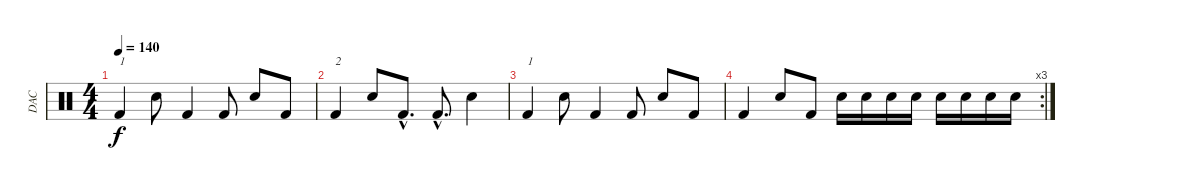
\track ("DAC" "DAC") {instrument percussion}
\staff {score}
\articulation defaults
\ts (4 4)
\tempo 140
\clef neutral
\ks c "Kick (hit) 2".4{txt "1" dy f} "Snare (hit) 2".8 "Kick (hit) 2".4 "Kick (hit) 2".8 "Snare (hit) 2".8 "Kick (hit) 2".8
|
"Kick (hit) 2".4{txt "2"} "Snare (hit) 2".8 "Kick (hit) 2"{hac}.8{d} "Kick (hit) 2"{hac}.8{d} "Snare (hit) 2".4 |
"Kick (hit) 2".4{txt "1"} "Snare (hit) 2".8 "Kick (hit) 2".4 "Kick (hit) 2".8 "Snare (hit) 2".8 "Kick (hit) 2".8 |
\rc 3 "Kick (hit) 2".4 "Snare (hit) 2".8 "Kick (hit) 2".8 "Snare (hit) 2".16 "Snare (hit) 2".16 "Snare (hit) 2".16 "Snare (hit) 2".16 "Snare (hit) 2".16 "Snare (hit) 2".16 "Snare (hit) 2".16 "Snare (hit) 2".16
